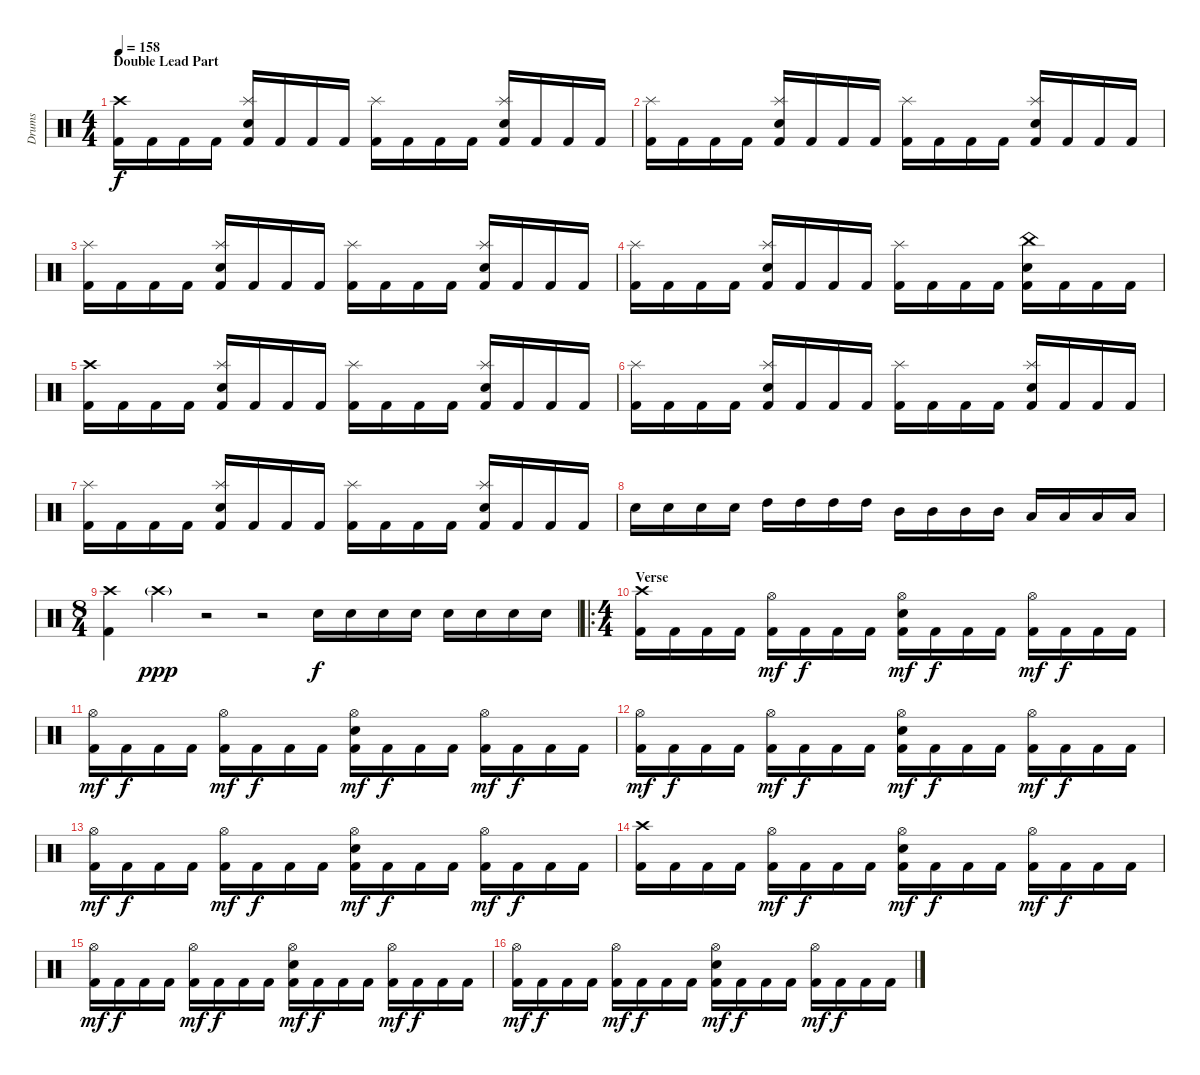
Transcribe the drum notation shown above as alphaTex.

\track ("Drums" "Drums") {instrument percussion}
\staff {score}
\articulation defaults
\ts (4 4)
\section ("" "Double Lead Part")
\tempo 158
\clef neutral
\ks c
("Crash high (hit)" "Kick (hit) 2").16{dy f} "Kick (hit) 2".16 "Kick (hit) 2".16 "Kick (hit) 2".16 ("Splash (hit)" "Electric Snare (hit)" "Kick (hit) 2").16 "Kick (hit) 2".16 "Kick (hit) 2".16 "Kick (hit) 2".16 ("Splash (hit)" "Kick (hit) 2").16 "Kick (hit) 2".16 "Kick (hit) 2".16 "Kick (hit) 2".16 ("Splash (hit)" "Electric Snare (hit)" "Kick (hit) 2").16 "Kick (hit) 2".16 "Kick (hit) 2".16 "Kick (hit) 2".16 |
("Splash (hit)" "Kick (hit) 2").16 "Kick (hit) 2".16 "Kick (hit) 2".16 "Kick (hit) 2".16 ("Splash (hit)" "Electric Snare (hit)" "Kick (hit) 2").16 "Kick (hit) 2".16 "Kick (hit) 2".16 "Kick (hit) 2".16 ("Splash (hit)" "Kick (hit) 2").16 "Kick (hit) 2".16 "Kick (hit) 2".16 "Kick (hit) 2".16 ("Splash (hit)" "Electric Snare (hit)" "Kick (hit) 2").16 "Kick (hit) 2".16 "Kick (hit) 2".16 "Kick (hit) 2".16 |
("Splash (hit)" "Kick (hit) 2").16 "Kick (hit) 2".16 "Kick (hit) 2".16 "Kick (hit) 2".16 ("Splash (hit)" "Electric Snare (hit)" "Kick (hit) 2").16 "Kick (hit) 2".16 "Kick (hit) 2".16 "Kick (hit) 2".16 ("Splash (hit)" "Kick (hit) 2").16 "Kick (hit) 2".16 "Kick (hit) 2".16 "Kick (hit) 2".16 ("Splash (hit)" "Electric Snare (hit)" "Kick (hit) 2").16 "Kick (hit) 2".16 "Kick (hit) 2".16 "Kick (hit) 2".16 |
("Splash (hit)" "Kick (hit) 2").16 "Kick (hit) 2".16 "Kick (hit) 2".16 "Kick (hit) 2".16 ("Splash (hit)" "Electric Snare (hit)" "Kick (hit) 2").16 "Kick (hit) 2".16 "Kick (hit) 2".16 "Kick (hit) 2".16 ("Splash (hit)" "Kick (hit) 2").16 "Kick (hit) 2".16 "Kick (hit) 2".16 "Kick (hit) 2".16 ("China (hit)" "Electric Snare (hit)" "Kick (hit) 2").16 "Kick (hit) 2".16 "Kick (hit) 2".16 "Kick (hit) 2".16 |
("Crash high (hit)" "Kick (hit) 2").16 "Kick (hit) 2".16 "Kick (hit) 2".16 "Kick (hit) 2".16 ("Splash (hit)" "Electric Snare (hit)" "Kick (hit) 2").16 "Kick (hit) 2".16 "Kick (hit) 2".16 "Kick (hit) 2".16 ("Splash (hit)" "Kick (hit) 2").16 "Kick (hit) 2".16 "Kick (hit) 2".16 "Kick (hit) 2".16 ("Splash (hit)" "Electric Snare (hit)" "Kick (hit) 2").16 "Kick (hit) 2".16 "Kick (hit) 2".16 "Kick (hit) 2".16 |
("Splash (hit)" "Kick (hit) 2").16 "Kick (hit) 2".16 "Kick (hit) 2".16 "Kick (hit) 2".16 ("Splash (hit)" "Electric Snare (hit)" "Kick (hit) 2").16 "Kick (hit) 2".16 "Kick (hit) 2".16 "Kick (hit) 2".16 ("Splash (hit)" "Kick (hit) 2").16 "Kick (hit) 2".16 "Kick (hit) 2".16 "Kick (hit) 2".16 ("Splash (hit)" "Electric Snare (hit)" "Kick (hit) 2").16 "Kick (hit) 2".16 "Kick (hit) 2".16 "Kick (hit) 2".16 |
("Splash (hit)" "Kick (hit) 2").16 "Kick (hit) 2".16 "Kick (hit) 2".16 "Kick (hit) 2".16 ("Splash (hit)" "Electric Snare (hit)" "Kick (hit) 2").16 "Kick (hit) 2".16 "Kick (hit) 2".16 "Kick (hit) 2".16 ("Splash (hit)" "Kick (hit) 2").16 "Kick (hit) 2".16 "Kick (hit) 2".16 "Kick (hit) 2".16 ("Splash (hit)" "Electric Snare (hit)" "Kick (hit) 2").16 "Kick (hit) 2".16 "Kick (hit) 2".16 "Kick (hit) 2".16 |
"Electric Snare (hit)".16 "Electric Snare (hit)".16 "Electric Snare (hit)".16 "Electric Snare (hit)".16 "High Tom (hit)".16 "High Tom (hit)".16 "High Tom (hit)".16 "High Tom (hit)".16 "Mid Tom (hit)".16 "Mid Tom (hit)".16 "Mid Tom (hit)".16 "Mid Tom (hit)".16 "Low Tom (hit)".16 "Low Tom (hit)".16 "Low Tom (hit)".16 "Low Tom (hit)".16 |
\ts (8 4)
("Crash high (hit)" "Kick (hit) 2").4 "Crash high (hit)"{g}.4{dy ppp} r.2 r.2 "Electric Snare (hit)".16{dy f} "Electric Snare (hit)".16 "Electric Snare (hit)".16 "Electric Snare (hit)".16 "Electric Snare (hit)".16 "Electric Snare (hit)".16 "Electric Snare (hit)".16 "Electric Snare (hit)".16 |
\ro
\ts (4 4)
\section ("" "Verse")
("Crash high (hit)" "Kick (hit) 2").16 "Kick (hit) 2".16 "Kick (hit) 2".16 "Kick (hit) 2".16 ("Hi-Hat (open)" "Kick (hit) 2").16{dy mf} "Kick (hit) 2".16{dy f} "Kick (hit) 2".16 "Kick (hit) 2".16 ("Hi-Hat (open)" "Electric Snare (hit)" "Kick (hit) 2").16{dy mf} "Kick (hit) 2".16{dy f} "Kick (hit) 2".16 "Kick (hit) 2".16 ("Hi-Hat (open)" "Kick (hit) 2").16{dy mf} "Kick (hit) 2".16{dy f} "Kick (hit) 2".16 "Kick (hit) 2".16 |
("Hi-Hat (open)" "Kick (hit) 2").16{dy mf} "Kick (hit) 2".16{dy f} "Kick (hit) 2".16 "Kick (hit) 2".16 ("Hi-Hat (open)" "Kick (hit) 2").16{dy mf} "Kick (hit) 2".16{dy f} "Kick (hit) 2".16 "Kick (hit) 2".16 ("Hi-Hat (open)" "Electric Snare (hit)" "Kick (hit) 2").16{dy mf} "Kick (hit) 2".16{dy f} "Kick (hit) 2".16 "Kick (hit) 2".16 ("Hi-Hat (open)" "Kick (hit) 2").16{dy mf} "Kick (hit) 2".16{dy f} "Kick (hit) 2".16 "Kick (hit) 2".16 |
("Hi-Hat (open)" "Kick (hit) 2").16{dy mf} "Kick (hit) 2".16{dy f} "Kick (hit) 2".16 "Kick (hit) 2".16 ("Hi-Hat (open)" "Kick (hit) 2").16{dy mf} "Kick (hit) 2".16{dy f} "Kick (hit) 2".16 "Kick (hit) 2".16 ("Hi-Hat (open)" "Electric Snare (hit)" "Kick (hit) 2").16{dy mf} "Kick (hit) 2".16{dy f} "Kick (hit) 2".16 "Kick (hit) 2".16 ("Hi-Hat (open)" "Kick (hit) 2").16{dy mf} "Kick (hit) 2".16{dy f} "Kick (hit) 2".16 "Kick (hit) 2".16 |
("Hi-Hat (open)" "Kick (hit) 2").16{dy mf} "Kick (hit) 2".16{dy f} "Kick (hit) 2".16 "Kick (hit) 2".16 ("Hi-Hat (open)" "Kick (hit) 2").16{dy mf} "Kick (hit) 2".16{dy f} "Kick (hit) 2".16 "Kick (hit) 2".16 ("Hi-Hat (open)" "Electric Snare (hit)" "Kick (hit) 2").16{dy mf} "Kick (hit) 2".16{dy f} "Kick (hit) 2".16 "Kick (hit) 2".16 ("Hi-Hat (open)" "Kick (hit) 2").16{dy mf} "Kick (hit) 2".16{dy f} "Kick (hit) 2".16 "Kick (hit) 2".16 |
("Crash high (hit)" "Kick (hit) 2").16 "Kick (hit) 2".16 "Kick (hit) 2".16 "Kick (hit) 2".16 ("Hi-Hat (open)" "Kick (hit) 2").16{dy mf} "Kick (hit) 2".16{dy f} "Kick (hit) 2".16 "Kick (hit) 2".16 ("Hi-Hat (open)" "Electric Snare (hit)" "Kick (hit) 2").16{dy mf} "Kick (hit) 2".16{dy f} "Kick (hit) 2".16 "Kick (hit) 2".16 ("Hi-Hat (open)" "Kick (hit) 2").16{dy mf} "Kick (hit) 2".16{dy f} "Kick (hit) 2".16 "Kick (hit) 2".16 |
("Hi-Hat (open)" "Kick (hit) 2").16{dy mf} "Kick (hit) 2".16{dy f} "Kick (hit) 2".16 "Kick (hit) 2".16 ("Hi-Hat (open)" "Kick (hit) 2").16{dy mf} "Kick (hit) 2".16{dy f} "Kick (hit) 2".16 "Kick (hit) 2".16 ("Hi-Hat (open)" "Electric Snare (hit)" "Kick (hit) 2").16{dy mf} "Kick (hit) 2".16{dy f} "Kick (hit) 2".16 "Kick (hit) 2".16 ("Hi-Hat (open)" "Kick (hit) 2").16{dy mf} "Kick (hit) 2".16{dy f} "Kick (hit) 2".16 "Kick (hit) 2".16 |
("Hi-Hat (open)" "Kick (hit) 2").16{dy mf} "Kick (hit) 2".16{dy f} "Kick (hit) 2".16 "Kick (hit) 2".16 ("Hi-Hat (open)" "Kick (hit) 2").16{dy mf} "Kick (hit) 2".16{dy f} "Kick (hit) 2".16 "Kick (hit) 2".16 ("Hi-Hat (open)" "Electric Snare (hit)" "Kick (hit) 2").16{dy mf} "Kick (hit) 2".16{dy f} "Kick (hit) 2".16 "Kick (hit) 2".16 ("Hi-Hat (open)" "Kick (hit) 2").16{dy mf} "Kick (hit) 2".16{dy f} "Kick (hit) 2".16 "Kick (hit) 2".16
